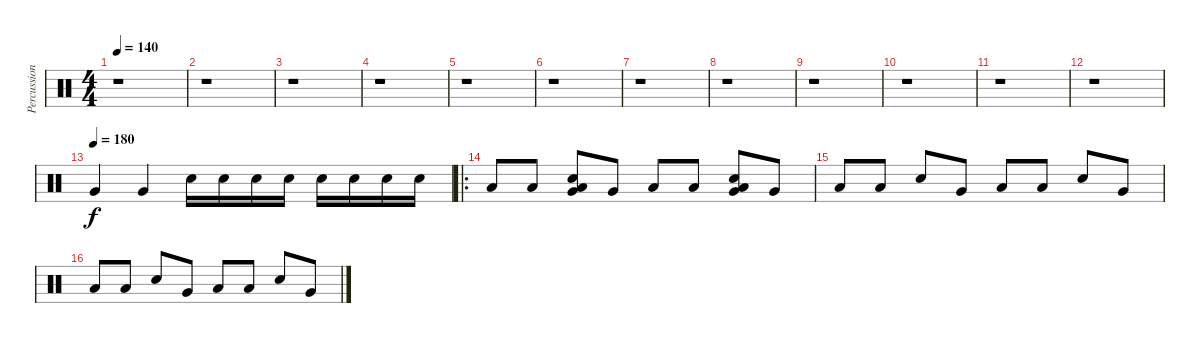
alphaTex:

\track ("Percussions" "Percussion") {instrument percussion}
\staff {score}
\articulation defaults
\ts (4 4)
\tempo 140
\clef neutral
\ks c
r.1{dy f} |
r.1 |
r.1 |
r.1 |
r.1 |
r.1 |
r.1 |
r.1 |
r.1 |
r.1 |
r.1 |
r.1 |
\tempo (180)
"Very Low Tom (hit)".4 "Very Low Tom (hit)".4 "Electric Snare (hit)".16 "Electric Snare (hit)".16 "Electric Snare (hit)".16 "Electric Snare (hit)".16 "Electric Snare (hit)".16 "Electric Snare (hit)".16 "Electric Snare (hit)".16 "Electric Snare (hit)".16 |
\ro "Low Floor Tom (hit)".8 "Low Floor Tom (hit)".8
("Low Floor Tom (hit)" "Electric Snare (hit)" "Very Low Tom (hit)").8 "Very Low Tom (hit)".8 "Low Floor Tom (hit)".8 "Low Floor Tom (hit)".8 ("Low Floor Tom (hit)" "Electric Snare (hit)" "Very Low Tom (hit)").8 "Very Low Tom (hit)".8 |
"Low Floor Tom (hit)".8 "Low Floor Tom (hit)".8 "Electric Snare (hit)".8 "Very Low Tom (hit)".8 "Low Floor Tom (hit)".8 "Low Floor Tom (hit)".8 "Electric Snare (hit)".8 "Very Low Tom (hit)".8 |
"Low Floor Tom (hit)".8 "Low Floor Tom (hit)".8 "Electric Snare (hit)".8 "Very Low Tom (hit)".8 "Low Floor Tom (hit)".8 "Low Floor Tom (hit)".8 "Electric Snare (hit)".8 "Very Low Tom (hit)".8
